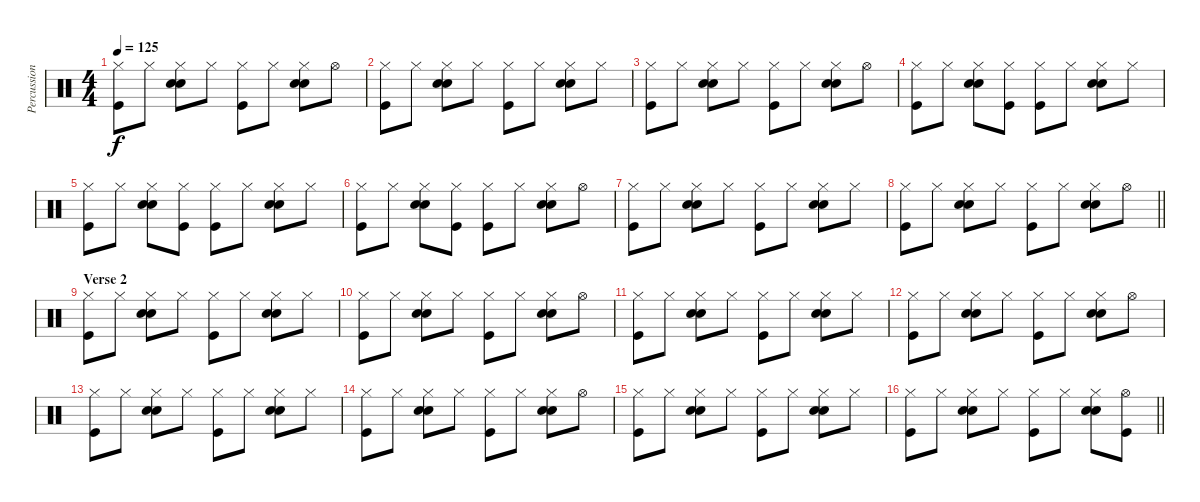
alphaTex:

\track ("Percussion" "Percussion") {instrument percussion}
\staff {score}
\articulation defaults
\ts (4 4)
\tempo 125
\clef neutral
\ks c
("Hi-Hat (closed)" "Kick (hit)").8{dy f} "Hi-Hat (closed)".8 ("Hi-Hat (closed)" "Hand Clap (hit)" "Snare (hit) 2").8 "Hi-Hat (closed)".8 ("Hi-Hat (closed)" "Kick (hit)").8 "Hi-Hat (closed)".8 ("Hi-Hat (closed)" "Hand Clap (hit)" "Snare (hit) 2").8 "Hi-Hat (open)".8 |
("Hi-Hat (closed)" "Kick (hit)").8 "Hi-Hat (closed)".8 ("Hi-Hat (closed)" "Hand Clap (hit)" "Snare (hit) 2").8 "Hi-Hat (closed)".8 ("Hi-Hat (closed)" "Kick (hit)").8 "Hi-Hat (closed)".8 ("Hi-Hat (closed)" "Hand Clap (hit)" "Snare (hit) 2").8 "Hi-Hat (closed)".8 |
("Hi-Hat (closed)" "Kick (hit)").8 "Hi-Hat (closed)".8 ("Hi-Hat (closed)" "Hand Clap (hit)" "Snare (hit) 2").8 "Hi-Hat (closed)".8 ("Hi-Hat (closed)" "Kick (hit)").8 "Hi-Hat (closed)".8 ("Hi-Hat (closed)" "Hand Clap (hit)" "Snare (hit) 2").8 "Hi-Hat (open)".8 |
("Hi-Hat (closed)" "Kick (hit)").8 "Hi-Hat (closed)".8 ("Hi-Hat (closed)" "Hand Clap (hit)" "Snare (hit) 2").8 ("Hi-Hat (closed)" "Kick (hit)").8 ("Hi-Hat (closed)" "Kick (hit)").8 "Hi-Hat (closed)".8 ("Hi-Hat (closed)" "Hand Clap (hit)" "Snare (hit) 2").8 "Hi-Hat (closed)".8 |
("Hi-Hat (closed)" "Kick (hit)").8 "Hi-Hat (closed)".8 ("Hi-Hat (closed)" "Hand Clap (hit)" "Snare (hit) 2").8 ("Hi-Hat (closed)" "Kick (hit)").8 ("Hi-Hat (closed)" "Kick (hit)").8 "Hi-Hat (closed)".8 ("Hi-Hat (closed)" "Hand Clap (hit)" "Snare (hit) 2").8 "Hi-Hat (closed)".8 |
("Hi-Hat (closed)" "Kick (hit)").8 "Hi-Hat (closed)".8 ("Hi-Hat (closed)" "Hand Clap (hit)" "Snare (hit) 2").8 ("Hi-Hat (closed)" "Kick (hit)").8 ("Hi-Hat (closed)" "Kick (hit)").8 "Hi-Hat (closed)".8 ("Hi-Hat (closed)" "Hand Clap (hit)" "Snare (hit) 2").8 "Hi-Hat (open)".8 |
("Hi-Hat (closed)" "Kick (hit)").8 "Hi-Hat (closed)".8 ("Hi-Hat (closed)" "Hand Clap (hit)" "Snare (hit) 2").8 "Hi-Hat (closed)".8 ("Hi-Hat (closed)" "Kick (hit)").8 "Hi-Hat (closed)".8 ("Hi-Hat (closed)" "Hand Clap (hit)" "Snare (hit) 2").8 "Hi-Hat (closed)".8 |
\barLineRight lightlight
("Hi-Hat (closed)" "Kick (hit)").8 "Hi-Hat (closed)".8 ("Hi-Hat (closed)" "Hand Clap (hit)" "Snare (hit) 2").8 "Hi-Hat (closed)".8 ("Hi-Hat (closed)" "Kick (hit)").8 "Hi-Hat (closed)".8 ("Hi-Hat (closed)" "Hand Clap (hit)" "Snare (hit) 2").8 "Hi-Hat (open)".8 |
\section ("" "Verse 2")
("Hi-Hat (closed)" "Kick (hit)").8 "Hi-Hat (closed)".8 ("Hi-Hat (closed)" "Hand Clap (hit)" "Snare (hit) 2").8 "Hi-Hat (closed)".8 ("Hi-Hat (closed)" "Kick (hit)").8 "Hi-Hat (closed)".8 ("Hi-Hat (closed)" "Hand Clap (hit)" "Snare (hit) 2").8 "Hi-Hat (closed)".8 |
("Hi-Hat (closed)" "Kick (hit)").8 "Hi-Hat (closed)".8 ("Hi-Hat (closed)" "Hand Clap (hit)" "Snare (hit) 2").8 "Hi-Hat (closed)".8 ("Hi-Hat (closed)" "Kick (hit)").8 "Hi-Hat (closed)".8 ("Hi-Hat (closed)" "Hand Clap (hit)" "Snare (hit) 2").8 "Hi-Hat (open)".8 |
("Hi-Hat (closed)" "Kick (hit)").8 "Hi-Hat (closed)".8 ("Hi-Hat (closed)" "Hand Clap (hit)" "Snare (hit) 2").8 "Hi-Hat (closed)".8 ("Hi-Hat (closed)" "Kick (hit)").8 "Hi-Hat (closed)".8 ("Hi-Hat (closed)" "Hand Clap (hit)" "Snare (hit) 2").8 "Hi-Hat (closed)".8 |
("Hi-Hat (closed)" "Kick (hit)").8 "Hi-Hat (closed)".8 ("Hi-Hat (closed)" "Hand Clap (hit)" "Snare (hit) 2").8 "Hi-Hat (closed)".8 ("Hi-Hat (closed)" "Kick (hit)").8 "Hi-Hat (closed)".8 ("Hi-Hat (closed)" "Hand Clap (hit)" "Snare (hit) 2").8 "Hi-Hat (open)".8 |
("Hi-Hat (closed)" "Kick (hit)").8 "Hi-Hat (closed)".8 ("Hi-Hat (closed)" "Hand Clap (hit)" "Snare (hit) 2").8 "Hi-Hat (closed)".8 ("Hi-Hat (closed)" "Kick (hit)").8 "Hi-Hat (closed)".8 ("Hi-Hat (closed)" "Hand Clap (hit)" "Snare (hit) 2").8 "Hi-Hat (closed)".8 |
("Hi-Hat (closed)" "Kick (hit)").8 "Hi-Hat (closed)".8 ("Hi-Hat (closed)" "Hand Clap (hit)" "Snare (hit) 2").8 "Hi-Hat (closed)".8 ("Hi-Hat (closed)" "Kick (hit)").8 "Hi-Hat (closed)".8 ("Hi-Hat (closed)" "Hand Clap (hit)" "Snare (hit) 2").8 "Hi-Hat (open)".8 |
("Hi-Hat (closed)" "Kick (hit)").8 "Hi-Hat (closed)".8 ("Hi-Hat (closed)" "Hand Clap (hit)" "Snare (hit) 2").8 "Hi-Hat (closed)".8 ("Hi-Hat (closed)" "Kick (hit)").8 "Hi-Hat (closed)".8 ("Hi-Hat (closed)" "Hand Clap (hit)" "Snare (hit) 2").8 "Hi-Hat (closed)".8 |
\barLineRight lightlight
("Hi-Hat (closed)" "Kick (hit)").8 "Hi-Hat (closed)".8 ("Hi-Hat (closed)" "Hand Clap (hit)" "Snare (hit) 2").8 "Hi-Hat (closed)".8 ("Hi-Hat (closed)" "Kick (hit)").8 "Hi-Hat (closed)".8 ("Hi-Hat (closed)" "Hand Clap (hit)" "Snare (hit) 2").8 ("Hi-Hat (open)" "Kick (hit)").8
